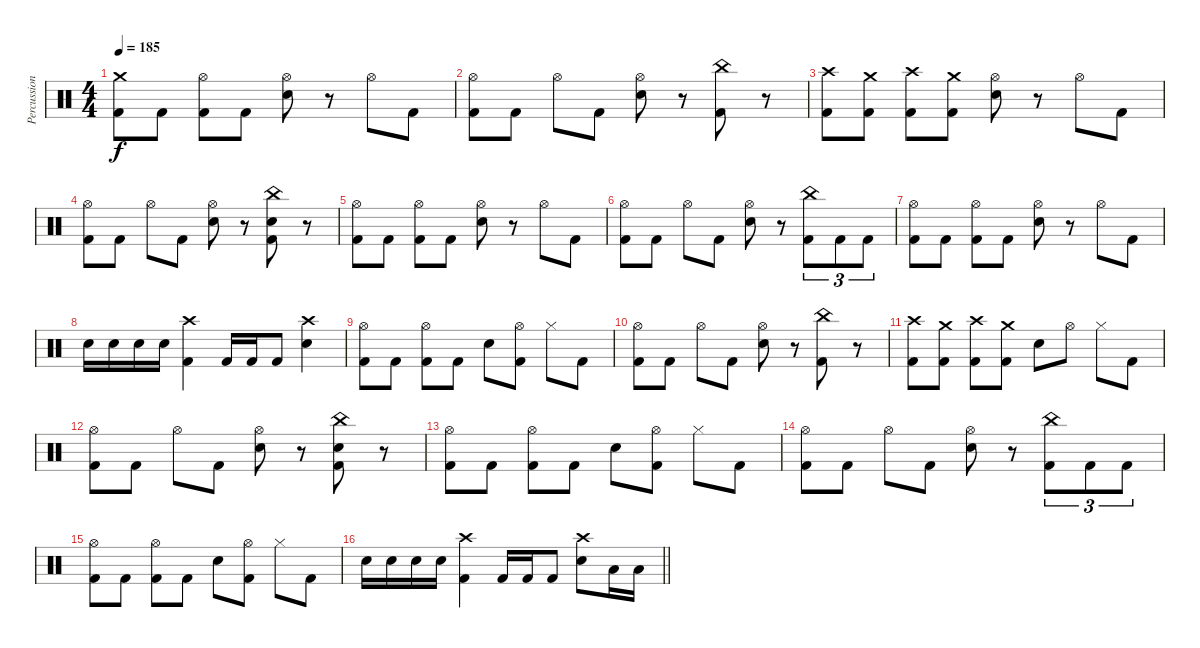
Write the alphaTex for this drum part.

\track ("Percussion" "Percussion") {instrument percussion}
\staff {score}
\articulation defaults
\ts (4 4)
\tempo 185
\clef neutral
\ks c
("Crash medium (hit)" "Kick (hit) 2").8{dy f} "Kick (hit) 2".8 ("Hi-Hat (open)" "Kick (hit) 2").8 "Kick (hit) 2".8 ("Hi-Hat (open)" "Electric Snare (hit)").8 r.8 "Hi-Hat (open)".8 "Kick (hit) 2".8 |
("Hi-Hat (open)" "Kick (hit) 2").8 "Kick (hit) 2".8 "Hi-Hat (open)".8 "Kick (hit) 2".8 ("Hi-Hat (open)" "Electric Snare (hit)").8 r.8 ("China (hit)" "Kick (hit) 2").8 r.8 |
("Crash high (hit)" "Kick (hit) 2").8 ("Crash medium (hit)" "Kick (hit) 2").8 ("Crash high (hit)" "Kick (hit) 2").8 ("Crash medium (hit)" "Kick (hit) 2").8 ("Hi-Hat (open)" "Electric Snare (hit)").8 r.8 "Hi-Hat (open)".8 "Kick (hit) 2".8 |
("Hi-Hat (open)" "Kick (hit) 2").8 "Kick (hit) 2".8 "Hi-Hat (open)".8 "Kick (hit) 2".8 ("Hi-Hat (open)" "Electric Snare (hit)").8 r.8 ("China (hit)" "Electric Snare (hit)" "Kick (hit) 2").8 r.8 |
("Hi-Hat (open)" "Kick (hit) 2").8 "Kick (hit) 2".8 ("Hi-Hat (open)" "Kick (hit) 2").8 "Kick (hit) 2".8 ("Hi-Hat (open)" "Electric Snare (hit)").8 r.8 "Hi-Hat (open)".8 "Kick (hit) 2".8 |
("Hi-Hat (open)" "Kick (hit) 2").8 "Kick (hit) 2".8 "Hi-Hat (open)".8 "Kick (hit) 2".8 ("Hi-Hat (open)" "Electric Snare (hit)").8 r.8 ("China (hit)" "Kick (hit) 2").8{tu (3 2)} "Kick (hit) 2".8{tu (3 2)} "Kick (hit) 2".8{tu (3 2)} |
("Hi-Hat (open)" "Kick (hit) 2").8 "Kick (hit) 2".8 ("Hi-Hat (open)" "Kick (hit) 2").8 "Kick (hit) 2".8 ("Hi-Hat (open)" "Electric Snare (hit)").8 r.8 "Hi-Hat (open)".8 "Kick (hit) 2".8 |
"Electric Snare (hit)".16 "Electric Snare (hit)".16 "Electric Snare (hit)".16 "Electric Snare (hit)".16 ("Crash high (hit)" "Kick (hit) 2").4 "Kick (hit) 2".16 "Kick (hit) 2".16 "Kick (hit) 2".8 ("Crash high (hit)" "Electric Snare (hit)").4 |
("Hi-Hat (open)" "Kick (hit) 2").8 "Kick (hit) 2".8 ("Hi-Hat (open)" "Kick (hit) 2").8 "Kick (hit) 2".8 "Electric Snare (hit)".8 ("Hi-Hat (open)" "Kick (hit) 2").8 "Hi-Hat (closed)".8 "Kick (hit) 2".8 |
("Hi-Hat (open)" "Kick (hit) 2").8 "Kick (hit) 2".8 "Hi-Hat (open)".8 "Kick (hit) 2".8 ("Hi-Hat (open)" "Electric Snare (hit)").8 r.8 ("China (hit)" "Kick (hit) 2").8 r.8 |
("Crash high (hit)" "Kick (hit) 2").8 ("Crash medium (hit)" "Kick (hit) 2").8 ("Crash high (hit)" "Kick (hit) 2").8 ("Crash medium (hit)" "Kick (hit) 2").8 "Electric Snare (hit)".8 "Hi-Hat (open)".8 "Hi-Hat (closed)".8 "Kick (hit) 2".8 |
("Hi-Hat (open)" "Kick (hit) 2").8 "Kick (hit) 2".8 "Hi-Hat (open)".8 "Kick (hit) 2".8 ("Hi-Hat (open)" "Electric Snare (hit)").8 r.8 ("China (hit)" "Electric Snare (hit)" "Kick (hit) 2").8 r.8 |
("Hi-Hat (open)" "Kick (hit) 2").8 "Kick (hit) 2".8 ("Hi-Hat (open)" "Kick (hit) 2").8 "Kick (hit) 2".8 "Electric Snare (hit)".8 ("Hi-Hat (open)" "Kick (hit) 2").8 "Hi-Hat (closed)".8 "Kick (hit) 2".8 |
("Hi-Hat (open)" "Kick (hit) 2").8 "Kick (hit) 2".8 "Hi-Hat (open)".8 "Kick (hit) 2".8 ("Hi-Hat (open)" "Electric Snare (hit)").8 r.8 ("China (hit)" "Kick (hit) 2").8{tu (3 2)} "Kick (hit) 2".8{tu (3 2)} "Kick (hit) 2".8{tu (3 2)} |
("Hi-Hat (open)" "Kick (hit) 2").8 "Kick (hit) 2".8 ("Hi-Hat (open)" "Kick (hit) 2").8 "Kick (hit) 2".8 "Electric Snare (hit)".8 ("Hi-Hat (open)" "Kick (hit) 2").8 "Hi-Hat (closed)".8 "Kick (hit) 2".8 |
\barLineRight lightlight "Electric Snare (hit)".16 "Electric Snare (hit)".16 "Electric Snare (hit)".16 "Electric Snare (hit)".16
("Crash high (hit)" "Kick (hit) 2").4 "Kick (hit) 2".16 "Kick (hit) 2".16 "Kick (hit) 2".8 ("Crash high (hit)" "Electric Snare (hit)").8 "Low Tom (hit)".16 "Low Tom (hit)".16
